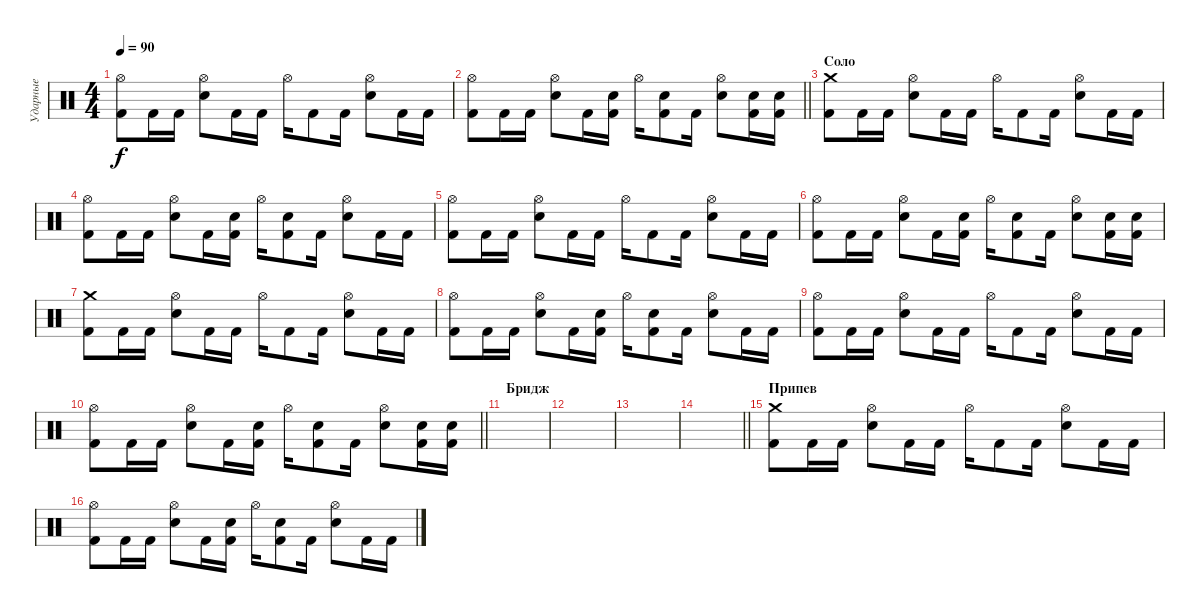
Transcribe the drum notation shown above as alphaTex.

\track ("Ударные" "Ударные") {instrument percussion}
\staff {score}
\articulation defaults
\ts (4 4)
\tempo 90
\clef neutral
\ks c
("Kick (hit) 2" "Hi-Hat (open)").8{dy f} "Kick (hit) 2".16 "Kick (hit) 2".16 ("Electric Snare (hit)" "Hi-Hat (open)").8 "Kick (hit) 2".16 "Kick (hit) 2".16 "Hi-Hat (open)".16 "Kick (hit) 2".8 "Kick (hit) 2".16 ("Electric Snare (hit)" "Hi-Hat (open)").8 "Kick (hit) 2".16 "Kick (hit) 2".16 |
\barLineRight lightlight
("Kick (hit) 2" "Hi-Hat (open)").8 "Kick (hit) 2".16 "Kick (hit) 2".16 ("Electric Snare (hit)" "Hi-Hat (open)").8 "Kick (hit) 2".16 ("Kick (hit) 2" "Electric Snare (hit)").16 "Hi-Hat (open)".16 ("Kick (hit) 2" "Electric Snare (hit)").8 "Kick (hit) 2".16 ("Electric Snare (hit)" "Hi-Hat (open)").8 ("Kick (hit) 2" "Electric Snare (hit)").16 ("Kick (hit) 2" "Electric Snare (hit)").16 |
\section ("" "Соло")
("Kick (hit) 2" "Crash medium (hit)").8 "Kick (hit) 2".16 "Kick (hit) 2".16 ("Electric Snare (hit)" "Hi-Hat (open)").8 "Kick (hit) 2".16 "Kick (hit) 2".16 "Hi-Hat (open)".16 "Kick (hit) 2".8 "Kick (hit) 2".16 ("Electric Snare (hit)" "Hi-Hat (open)").8 "Kick (hit) 2".16 "Kick (hit) 2".16 |
("Kick (hit) 2" "Hi-Hat (open)").8 "Kick (hit) 2".16 "Kick (hit) 2".16 ("Electric Snare (hit)" "Hi-Hat (open)").8 "Kick (hit) 2".16 ("Kick (hit) 2" "Electric Snare (hit)").16 "Hi-Hat (open)".16 ("Kick (hit) 2" "Electric Snare (hit)").8 "Kick (hit) 2".16 ("Electric Snare (hit)" "Hi-Hat (open)").8 "Kick (hit) 2".16 "Kick (hit) 2".16 |
("Kick (hit) 2" "Hi-Hat (open)").8 "Kick (hit) 2".16 "Kick (hit) 2".16 ("Electric Snare (hit)" "Hi-Hat (open)").8 "Kick (hit) 2".16 "Kick (hit) 2".16 "Hi-Hat (open)".16 "Kick (hit) 2".8 "Kick (hit) 2".16 ("Electric Snare (hit)" "Hi-Hat (open)").8 "Kick (hit) 2".16 "Kick (hit) 2".16 |
("Kick (hit) 2" "Hi-Hat (open)").8 "Kick (hit) 2".16 "Kick (hit) 2".16 ("Electric Snare (hit)" "Hi-Hat (open)").8 "Kick (hit) 2".16 ("Kick (hit) 2" "Electric Snare (hit)").16 "Hi-Hat (open)".16 ("Kick (hit) 2" "Electric Snare (hit)").8 "Kick (hit) 2".16 ("Electric Snare (hit)" "Hi-Hat (open)").8 ("Kick (hit) 2" "Electric Snare (hit)").16 ("Kick (hit) 2" "Electric Snare (hit)").16 |
("Kick (hit) 2" "Crash medium (hit)").8 "Kick (hit) 2".16 "Kick (hit) 2".16 ("Electric Snare (hit)" "Hi-Hat (open)").8 "Kick (hit) 2".16 "Kick (hit) 2".16 "Hi-Hat (open)".16 "Kick (hit) 2".8 "Kick (hit) 2".16 ("Electric Snare (hit)" "Hi-Hat (open)").8 "Kick (hit) 2".16 "Kick (hit) 2".16 |
("Kick (hit) 2" "Hi-Hat (open)").8 "Kick (hit) 2".16 "Kick (hit) 2".16 ("Electric Snare (hit)" "Hi-Hat (open)").8 "Kick (hit) 2".16 ("Kick (hit) 2" "Electric Snare (hit)").16 "Hi-Hat (open)".16 ("Kick (hit) 2" "Electric Snare (hit)").8 "Kick (hit) 2".16 ("Electric Snare (hit)" "Hi-Hat (open)").8 "Kick (hit) 2".16 "Kick (hit) 2".16 |
("Kick (hit) 2" "Hi-Hat (open)").8 "Kick (hit) 2".16 "Kick (hit) 2".16 ("Electric Snare (hit)" "Hi-Hat (open)").8 "Kick (hit) 2".16 "Kick (hit) 2".16 "Hi-Hat (open)".16 "Kick (hit) 2".8 "Kick (hit) 2".16 ("Electric Snare (hit)" "Hi-Hat (open)").8 "Kick (hit) 2".16 "Kick (hit) 2".16 |
\barLineRight lightlight
("Kick (hit) 2" "Hi-Hat (open)").8 "Kick (hit) 2".16 "Kick (hit) 2".16 ("Electric Snare (hit)" "Hi-Hat (open)").8 "Kick (hit) 2".16 ("Kick (hit) 2" "Electric Snare (hit)").16 "Hi-Hat (open)".16 ("Kick (hit) 2" "Electric Snare (hit)").8 "Kick (hit) 2".16 ("Electric Snare (hit)" "Hi-Hat (open)").8 ("Kick (hit) 2" "Electric Snare (hit)").16 ("Kick (hit) 2" "Electric Snare (hit)").16 |
\section ("" "Бридж")
|
|
|
\barLineRight lightlight
|
\section ("" "Припев")
("Kick (hit) 2" "Crash medium (hit)").8 "Kick (hit) 2".16 "Kick (hit) 2".16 ("Electric Snare (hit)" "Hi-Hat (open)").8 "Kick (hit) 2".16 "Kick (hit) 2".16 "Hi-Hat (open)".16 "Kick (hit) 2".8 "Kick (hit) 2".16 ("Electric Snare (hit)" "Hi-Hat (open)").8 "Kick (hit) 2".16 "Kick (hit) 2".16 |
("Kick (hit) 2" "Hi-Hat (open)").8 "Kick (hit) 2".16 "Kick (hit) 2".16 ("Electric Snare (hit)" "Hi-Hat (open)").8 "Kick (hit) 2".16 ("Kick (hit) 2" "Electric Snare (hit)").16 "Hi-Hat (open)".16 ("Kick (hit) 2" "Electric Snare (hit)").8 "Kick (hit) 2".16 ("Electric Snare (hit)" "Hi-Hat (open)").8 "Kick (hit) 2".16 "Kick (hit) 2".16
